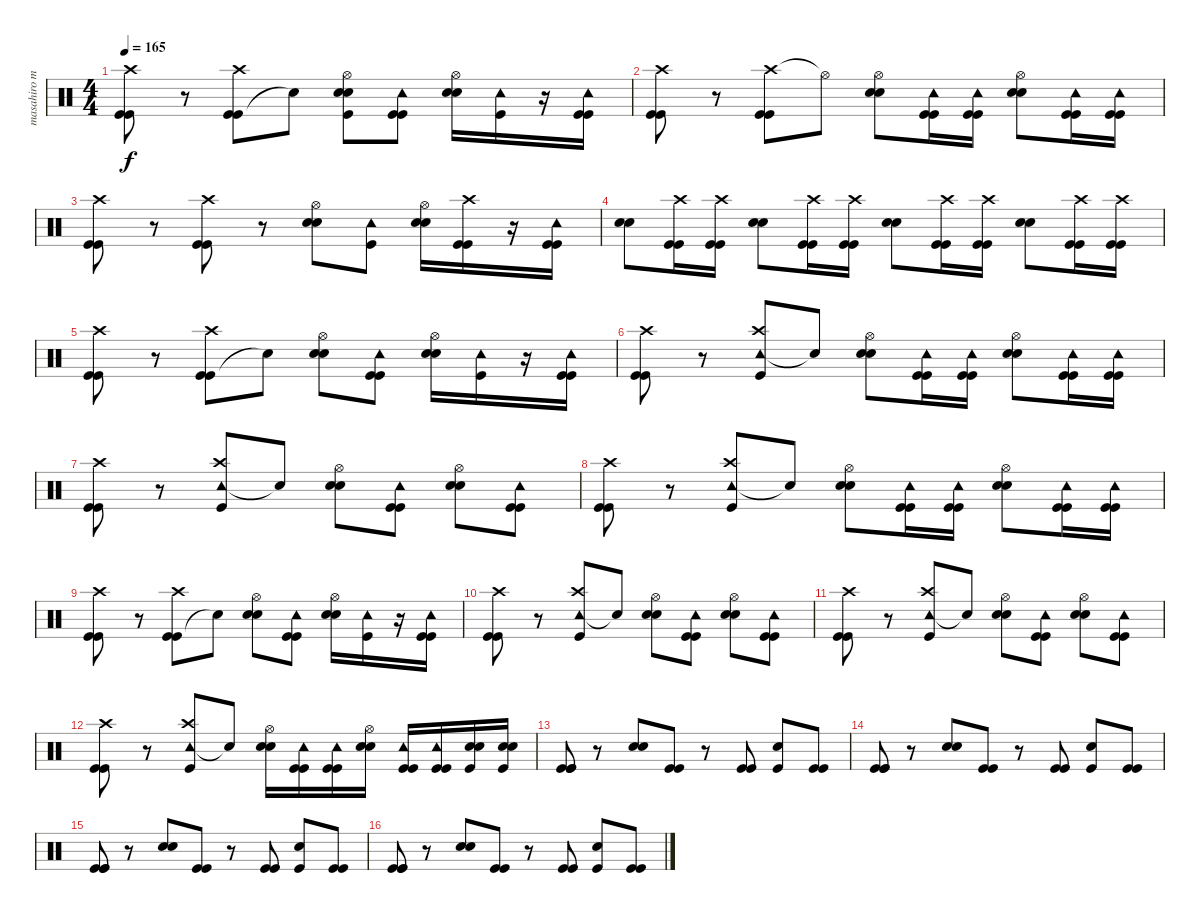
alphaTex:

\track ("masahiro muta" "masahiro m") {instrument percussion}
\staff {score}
\articulation defaults
\ts (4 4)
\tempo 165
\clef neutral
\ks c
("Kick (hit)" "Crash high (hit)" "Kick (hit)").8{dy f} r.8 ("Kick (hit)" "Crash high (hit)" "Kick (hit)").8 "Snare (hit)"{t}.8 ("Electric Snare (hit)" "Hi-Hat (open)" "Electric Snare (hit)" "Kick (hit)").8 ("Kick (hit)" "Tambourine (hit)" "Kick (hit)").8 ("Electric Snare (hit)" "Hi-Hat (open)" "Electric Snare (hit)").16 ("Kick (hit)" "Tambourine (hit)").16 r.16 ("Tambourine (hit)" "Kick (hit)" "Kick (hit)").16 |
("Kick (hit)" "Kick (hit)" "Crash high (hit)").8 r.8 ("Crash high (hit)" "Kick (hit)" "Kick (hit)").8 "Hi-Hat (open)"{t}.8 ("Electric Snare (hit)" "Hi-Hat (open)" "Electric Snare (hit)").8 ("Tambourine (hit)" "Kick (hit)" "Kick (hit)").16 ("Kick (hit)" "Tambourine (hit)" "Kick (hit)").16 ("Hi-Hat (open)" "Electric Snare (hit)" "Electric Snare (hit)").8 ("Kick (hit)" "Tambourine (hit)" "Kick (hit)").16 ("Kick (hit)" "Tambourine (hit)" "Kick (hit)").16 |
("Kick (hit)" "Crash high (hit)" "Kick (hit)").8 r.8 ("Kick (hit)" "Crash high (hit)" "Kick (hit)").8 r.8 ("Electric Snare (hit)" "Hi-Hat (open)" "Electric Snare (hit)").8 ("Kick (hit)" "Tambourine (hit)").8 ("Electric Snare (hit)" "Hi-Hat (open)" "Electric Snare (hit)").16 ("Kick (hit)" "Crash high (hit)" "Kick (hit)").16 r.16 ("Tambourine (hit)" "Kick (hit)" "Kick (hit)").16 |
("Electric Snare (hit)" "Electric Snare (hit)").8 ("Kick (hit)" "Kick (hit)" "Crash high (hit)").16 ("Kick (hit)" "Crash high (hit)" "Kick (hit)").16 ("Electric Snare (hit)" "Electric Snare (hit)").8 ("Kick (hit)" "Kick (hit)" "Crash high (hit)").16 ("Kick (hit)" "Kick (hit)" "Crash high (hit)").16 ("Electric Snare (hit)" "Electric Snare (hit)").8 ("Kick (hit)" "Kick (hit)" "Crash high (hit)").16 ("Kick (hit)" "Kick (hit)" "Crash high (hit)").16 ("Electric Snare (hit)" "Electric Snare (hit)").8 ("Kick (hit)" "Kick (hit)" "Crash high (hit)").16 ("Kick (hit)" "Kick (hit)" "Crash high (hit)").16 |
("Kick (hit)" "Crash high (hit)" "Kick (hit)").8 r.8 ("Kick (hit)" "Crash high (hit)" "Kick (hit)").8 "Snare (hit)"{t}.8 ("Electric Snare (hit)" "Hi-Hat (open)" "Electric Snare (hit)").8 ("Kick (hit)" "Tambourine (hit)" "Kick (hit)").8 ("Electric Snare (hit)" "Hi-Hat (open)" "Electric Snare (hit)").16 ("Kick (hit)" "Tambourine (hit)").16 r.16 ("Tambourine (hit)" "Kick (hit)" "Kick (hit)").16 |
("Kick (hit)" "Kick (hit)" "Crash high (hit)").8 r.8 ("Tambourine (hit)" "Kick (hit)" "Crash high (hit)").8 "Snare (hit)"{t}.8 ("Electric Snare (hit)" "Hi-Hat (open)" "Electric Snare (hit)").8 ("Tambourine (hit)" "Kick (hit)" "Kick (hit)").16 ("Kick (hit)" "Tambourine (hit)" "Kick (hit)").16 ("Hi-Hat (open)" "Electric Snare (hit)" "Electric Snare (hit)").8 ("Kick (hit)" "Tambourine (hit)" "Kick (hit)").16 ("Kick (hit)" "Tambourine (hit)" "Kick (hit)").16 |
("Kick (hit)" "Kick (hit)" "Crash high (hit)").8 r.8 ("Tambourine (hit)" "Kick (hit)" "Crash high (hit)").8 "Snare (hit)"{t}.8 ("Electric Snare (hit)" "Hi-Hat (open)" "Electric Snare (hit)").8 ("Kick (hit)" "Tambourine (hit)" "Kick (hit)").8 ("Hi-Hat (open)" "Electric Snare (hit)" "Electric Snare (hit)").8 ("Kick (hit)" "Tambourine (hit)" "Kick (hit)").8 |
("Kick (hit)" "Kick (hit)" "Crash high (hit)").8 r.8 ("Tambourine (hit)" "Kick (hit)" "Crash high (hit)").8 "Snare (hit)"{t}.8 ("Electric Snare (hit)" "Hi-Hat (open)" "Electric Snare (hit)").8 ("Tambourine (hit)" "Kick (hit)" "Kick (hit)").16 ("Kick (hit)" "Tambourine (hit)" "Kick (hit)").16 ("Hi-Hat (open)" "Electric Snare (hit)" "Electric Snare (hit)").8 ("Kick (hit)" "Tambourine (hit)" "Kick (hit)").16 ("Kick (hit)" "Tambourine (hit)" "Kick (hit)").16 |
("Kick (hit)" "Crash high (hit)" "Kick (hit)").8 r.8 ("Kick (hit)" "Crash high (hit)" "Kick (hit)").8 "Snare (hit)"{t}.8 ("Electric Snare (hit)" "Hi-Hat (open)" "Electric Snare (hit)").8 ("Kick (hit)" "Tambourine (hit)" "Kick (hit)").8 ("Electric Snare (hit)" "Hi-Hat (open)" "Electric Snare (hit)").16 ("Kick (hit)" "Tambourine (hit)").16 r.16 ("Tambourine (hit)" "Kick (hit)" "Kick (hit)").16 |
("Kick (hit)" "Kick (hit)" "Crash high (hit)").8 r.8 ("Tambourine (hit)" "Kick (hit)" "Crash high (hit)").8 "Snare (hit)"{t}.8 ("Electric Snare (hit)" "Hi-Hat (open)" "Electric Snare (hit)").8 ("Kick (hit)" "Tambourine (hit)" "Kick (hit)").8 ("Hi-Hat (open)" "Electric Snare (hit)" "Electric Snare (hit)").8 ("Kick (hit)" "Tambourine (hit)" "Kick (hit)").8 |
("Kick (hit)" "Kick (hit)" "Crash high (hit)").8 r.8 ("Tambourine (hit)" "Kick (hit)" "Crash high (hit)").8 "Snare (hit)"{t}.8 ("Electric Snare (hit)" "Hi-Hat (open)" "Electric Snare (hit)").8 ("Kick (hit)" "Tambourine (hit)" "Kick (hit)").8 ("Hi-Hat (open)" "Electric Snare (hit)" "Electric Snare (hit)").8 ("Kick (hit)" "Tambourine (hit)" "Kick (hit)").8 |
("Kick (hit)" "Kick (hit)" "Crash high (hit)").8 r.8 ("Tambourine (hit)" "Kick (hit)" "Crash high (hit)").8 "Snare (hit)"{t}.8 ("Electric Snare (hit)" "Hi-Hat (open)" "Electric Snare (hit)").16 ("Tambourine (hit)" "Kick (hit)" "Kick (hit)").16 ("Kick (hit)" "Tambourine (hit)" "Kick (hit)").16 ("Hi-Hat (open)" "Electric Snare (hit)" "Electric Snare (hit)").16 ("Kick (hit)" "Tambourine (hit)" "Kick (hit)").16 ("Kick (hit)" "Tambourine (hit)" "Kick (hit)").16 ("Electric Snare (hit)" "Electric Snare (hit)" "Kick (hit)").16 ("Electric Snare (hit)" "Electric Snare (hit)" "Kick (hit)").16 |
("Kick (hit)" "Kick (hit)" "Kick (hit)").8 r.8 ("Electric Snare (hit)" "Electric Snare (hit)").8 ("Kick (hit)" "Kick (hit)").8 r.8 ("Kick (hit)" "Kick (hit)").8 ("Electric Snare (hit)" "Kick (hit)").8 ("Kick (hit)" "Kick (hit)").8 |
("Kick (hit)" "Kick (hit)" "Kick (hit)").8 r.8 ("Electric Snare (hit)" "Electric Snare (hit)").8 ("Kick (hit)" "Kick (hit)").8 r.8 ("Kick (hit)" "Kick (hit)").8 ("Electric Snare (hit)" "Kick (hit)").8 ("Kick (hit)" "Kick (hit)").8 |
("Kick (hit)" "Kick (hit)" "Kick (hit)").8 r.8 ("Electric Snare (hit)" "Electric Snare (hit)").8 ("Kick (hit)" "Kick (hit)").8 r.8 ("Kick (hit)" "Kick (hit)").8 ("Electric Snare (hit)" "Kick (hit)").8 ("Kick (hit)" "Kick (hit)").8 |
("Kick (hit)" "Kick (hit)" "Kick (hit)").8 r.8 ("Electric Snare (hit)" "Electric Snare (hit)").8 ("Kick (hit)" "Kick (hit)").8 r.8 ("Kick (hit)" "Kick (hit)").8 ("Electric Snare (hit)" "Kick (hit)").8 ("Kick (hit)" "Kick (hit)").8
